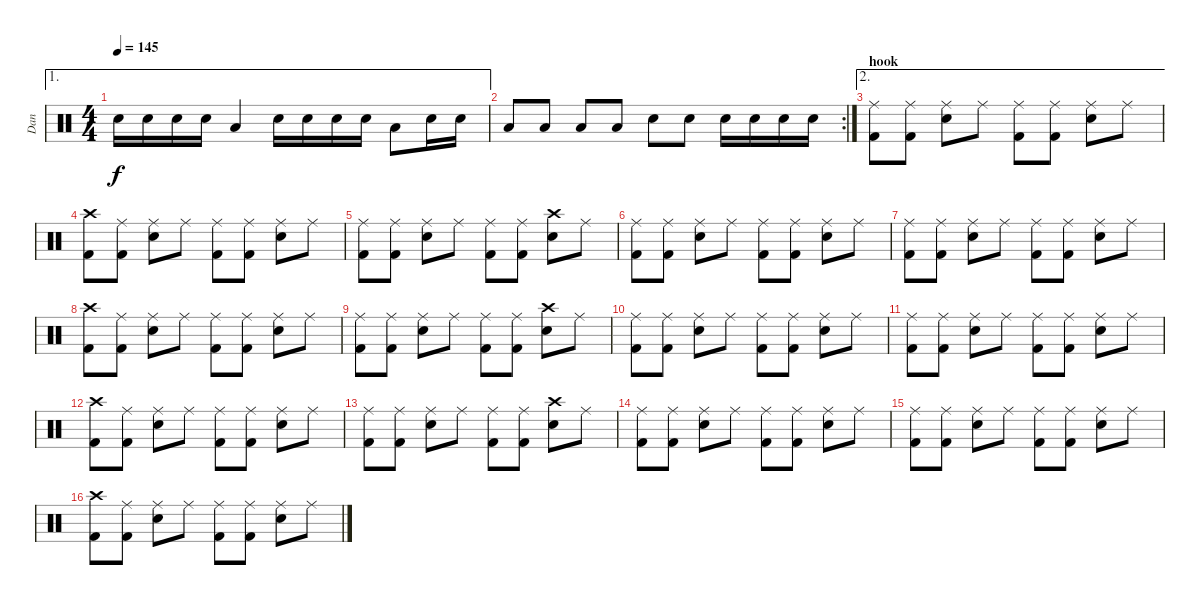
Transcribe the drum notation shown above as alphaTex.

\track ("Dan" "Dan") {instrument percussion}
\staff {score}
\articulation defaults
\ae 1
\ts (4 4)
\tempo 145
\clef neutral
\ks c "Snare (hit) 2".16{dy f} "Snare (hit) 2".16 "Snare (hit) 2".16 "Snare (hit) 2".16 "Low Floor Tom (hit)".4 "Snare (hit) 2".16 "Snare (hit) 2".16 "Snare (hit) 2".16 "Snare (hit) 2".16 "Low Floor Tom (hit)".8 "Snare (hit) 2".16 "Snare (hit) 2".16
|
\rc 2 "Low Floor Tom (hit)".8 "Low Floor Tom (hit)".8 "Low Floor Tom (hit)".8 "Low Floor Tom (hit)".8 "Snare (hit) 2".8 "Snare (hit) 2".8 "Snare (hit) 2".16 "Snare (hit) 2".16 "Snare (hit) 2".16 "Snare (hit) 2".16
|
\ae 2
\section ("" "hook")
("Ride (middle)" "Kick (hit) 2").8 ("Ride (middle)" "Kick (hit) 2").8 ("Ride (middle)" "Snare (hit) 2").8 "Ride (middle)".8 ("Ride (middle)" "Kick (hit) 2").8 ("Ride (middle)" "Kick (hit) 2").8 ("Ride (middle)" "Snare (hit) 2").8 "Ride (middle)".8 |
("Crash high (hit)" "Kick (hit) 2").8 ("Ride (middle)" "Kick (hit) 2").8 ("Ride (middle)" "Snare (hit) 2").8 "Ride (middle)".8 ("Ride (middle)" "Kick (hit) 2").8 ("Ride (middle)" "Kick (hit) 2").8 ("Ride (middle)" "Snare (hit) 2").8 "Ride (middle)".8 |
("Ride (middle)" "Kick (hit) 2").8 ("Ride (middle)" "Kick (hit) 2").8 ("Ride (middle)" "Snare (hit) 2").8 "Ride (middle)".8 ("Ride (middle)" "Kick (hit) 2").8 ("Ride (middle)" "Kick (hit) 2").8 ("Crash high (hit)" "Snare (hit) 2").8 "Ride (middle)".8 |
("Ride (middle)" "Kick (hit) 2").8 ("Ride (middle)" "Kick (hit) 2").8 ("Ride (middle)" "Snare (hit) 2").8 "Ride (middle)".8 ("Ride (middle)" "Kick (hit) 2").8 ("Ride (middle)" "Kick (hit) 2").8 ("Ride (middle)" "Snare (hit) 2").8 "Ride (middle)".8 |
("Ride (middle)" "Kick (hit) 2").8 ("Ride (middle)" "Kick (hit) 2").8 ("Ride (middle)" "Snare (hit) 2").8 "Ride (middle)".8 ("Ride (middle)" "Kick (hit) 2").8 ("Ride (middle)" "Kick (hit) 2").8 ("Ride (middle)" "Snare (hit) 2").8 "Ride (middle)".8 |
("Crash high (hit)" "Kick (hit) 2").8 ("Ride (middle)" "Kick (hit) 2").8 ("Ride (middle)" "Snare (hit) 2").8 "Ride (middle)".8 ("Ride (middle)" "Kick (hit) 2").8 ("Ride (middle)" "Kick (hit) 2").8 ("Ride (middle)" "Snare (hit) 2").8 "Ride (middle)".8 |
("Ride (middle)" "Kick (hit) 2").8 ("Ride (middle)" "Kick (hit) 2").8 ("Ride (middle)" "Snare (hit) 2").8 "Ride (middle)".8 ("Ride (middle)" "Kick (hit) 2").8 ("Ride (middle)" "Kick (hit) 2").8 ("Crash high (hit)" "Snare (hit) 2").8 "Ride (middle)".8 |
("Ride (middle)" "Kick (hit) 2").8 ("Ride (middle)" "Kick (hit) 2").8 ("Ride (middle)" "Snare (hit) 2").8 "Ride (middle)".8 ("Ride (middle)" "Kick (hit) 2").8 ("Ride (middle)" "Kick (hit) 2").8 ("Ride (middle)" "Snare (hit) 2").8 "Ride (middle)".8 |
("Ride (middle)" "Kick (hit) 2").8 ("Ride (middle)" "Kick (hit) 2").8 ("Ride (middle)" "Snare (hit) 2").8 "Ride (middle)".8 ("Ride (middle)" "Kick (hit) 2").8 ("Ride (middle)" "Kick (hit) 2").8 ("Ride (middle)" "Snare (hit) 2").8 "Ride (middle)".8 |
("Crash high (hit)" "Kick (hit) 2").8 ("Ride (middle)" "Kick (hit) 2").8 ("Ride (middle)" "Snare (hit) 2").8 "Ride (middle)".8 ("Ride (middle)" "Kick (hit) 2").8 ("Ride (middle)" "Kick (hit) 2").8 ("Ride (middle)" "Snare (hit) 2").8 "Ride (middle)".8 |
("Ride (middle)" "Kick (hit) 2").8 ("Ride (middle)" "Kick (hit) 2").8 ("Ride (middle)" "Snare (hit) 2").8 "Ride (middle)".8 ("Ride (middle)" "Kick (hit) 2").8 ("Ride (middle)" "Kick (hit) 2").8 ("Crash high (hit)" "Snare (hit) 2").8 "Ride (middle)".8 |
("Ride (middle)" "Kick (hit) 2").8 ("Ride (middle)" "Kick (hit) 2").8 ("Ride (middle)" "Snare (hit) 2").8 "Ride (middle)".8 ("Ride (middle)" "Kick (hit) 2").8 ("Ride (middle)" "Kick (hit) 2").8 ("Ride (middle)" "Snare (hit) 2").8 "Ride (middle)".8 |
("Ride (middle)" "Kick (hit) 2").8 ("Ride (middle)" "Kick (hit) 2").8 ("Ride (middle)" "Snare (hit) 2").8 "Ride (middle)".8 ("Ride (middle)" "Kick (hit) 2").8 ("Ride (middle)" "Kick (hit) 2").8 ("Ride (middle)" "Snare (hit) 2").8 "Ride (middle)".8 |
("Crash high (hit)" "Kick (hit) 2").8 ("Ride (middle)" "Kick (hit) 2").8 ("Ride (middle)" "Snare (hit) 2").8 "Ride (middle)".8 ("Ride (middle)" "Kick (hit) 2").8 ("Ride (middle)" "Kick (hit) 2").8 ("Ride (middle)" "Snare (hit) 2").8 "Ride (middle)".8
